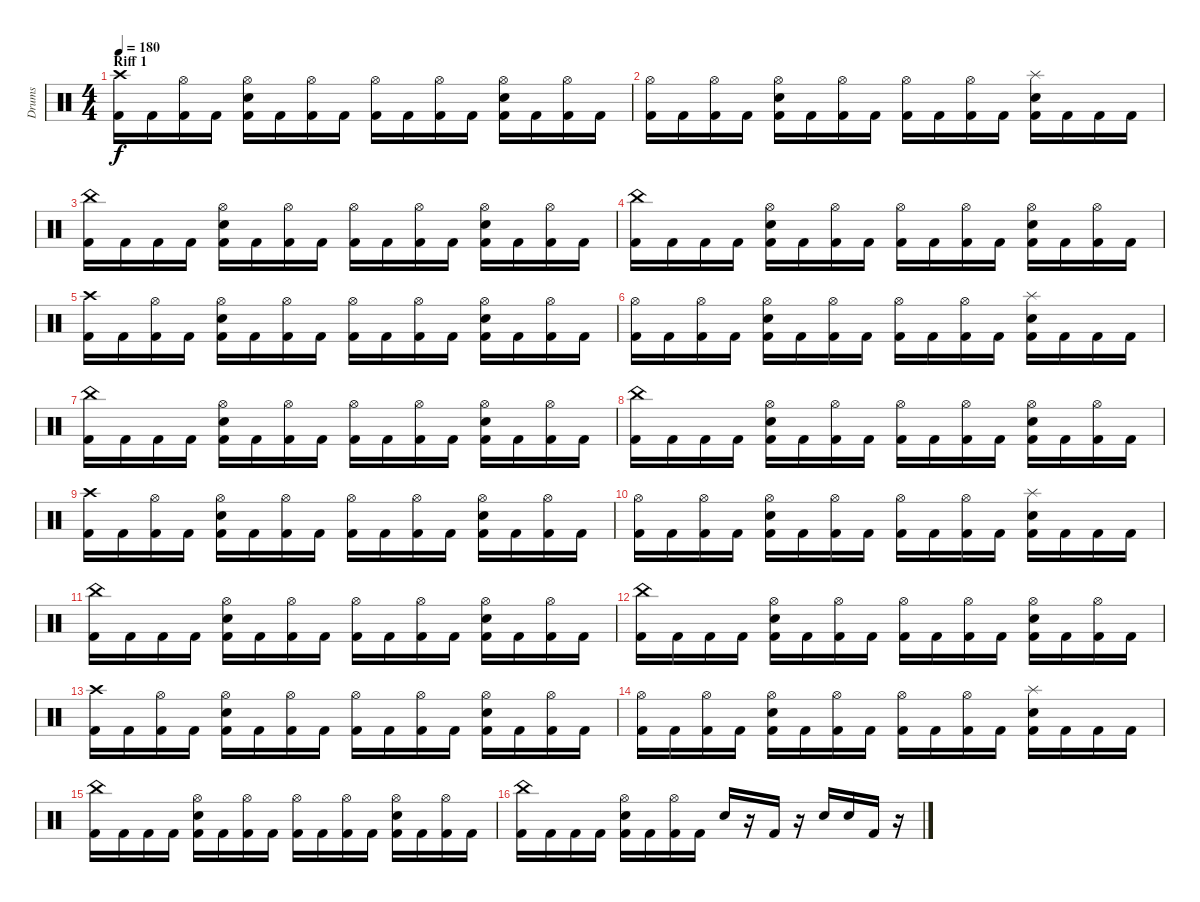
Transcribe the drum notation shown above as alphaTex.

\track ("Drums" "Drums") {instrument percussion}
\staff {score}
\articulation defaults
\ts (4 4)
\section ("" "Riff 1")
\tempo 180
\clef neutral
\ks c
("Kick (hit) 2" "Crash high (hit)").16{dy f} "Kick (hit) 2".16 ("Kick (hit) 2" "Hi-Hat (open)").16 "Kick (hit) 2".16 ("Kick (hit) 2" "Snare (hit) 2" "Hi-Hat (open)").16 "Kick (hit) 2".16 ("Kick (hit) 2" "Hi-Hat (open)").16 "Kick (hit) 2".16 ("Kick (hit) 2" "Hi-Hat (open)").16 "Kick (hit) 2".16 ("Kick (hit) 2" "Hi-Hat (open)").16 "Kick (hit) 2".16 ("Kick (hit) 2" "Snare (hit) 2" "Hi-Hat (open)").16 "Kick (hit) 2".16 ("Kick (hit) 2" "Hi-Hat (open)").16 "Kick (hit) 2".16 |
("Kick (hit) 2" "Hi-Hat (open)").16 "Kick (hit) 2".16 ("Kick (hit) 2" "Hi-Hat (open)").16 "Kick (hit) 2".16 ("Kick (hit) 2" "Snare (hit) 2" "Hi-Hat (open)").16 "Kick (hit) 2".16 ("Kick (hit) 2" "Hi-Hat (open)").16 "Kick (hit) 2".16 ("Kick (hit) 2" "Hi-Hat (open)").16 "Kick (hit) 2".16 ("Kick (hit) 2" "Hi-Hat (open)").16 "Kick (hit) 2".16 ("Kick (hit) 2" "Snare (hit) 2" "Splash (hit)").16 "Kick (hit) 2".16 "Kick (hit) 2".16 "Kick (hit) 2".16 |
("Kick (hit) 2" "China (hit)").16 "Kick (hit) 2".16 "Kick (hit) 2".16 "Kick (hit) 2".16 ("Kick (hit) 2" "Snare (hit) 2" "Hi-Hat (open)").16 "Kick (hit) 2".16 ("Kick (hit) 2" "Hi-Hat (open)").16 "Kick (hit) 2".16 ("Kick (hit) 2" "Hi-Hat (open)").16 "Kick (hit) 2".16 ("Kick (hit) 2" "Hi-Hat (open)").16 "Kick (hit) 2".16 ("Kick (hit) 2" "Snare (hit) 2" "Hi-Hat (open)").16 "Kick (hit) 2".16 ("Kick (hit) 2" "Hi-Hat (open)").16 "Kick (hit) 2".16 |
("Kick (hit) 2" "China (hit)").16 "Kick (hit) 2".16 "Kick (hit) 2".16 "Kick (hit) 2".16 ("Kick (hit) 2" "Snare (hit) 2" "Hi-Hat (open)").16 "Kick (hit) 2".16 ("Kick (hit) 2" "Hi-Hat (open)").16 "Kick (hit) 2".16 ("Kick (hit) 2" "Hi-Hat (open)").16 "Kick (hit) 2".16 ("Kick (hit) 2" "Hi-Hat (open)").16 "Kick (hit) 2".16 ("Kick (hit) 2" "Snare (hit) 2" "Hi-Hat (open)").16 "Kick (hit) 2".16 ("Kick (hit) 2" "Hi-Hat (open)").16 "Kick (hit) 2".16 |
("Kick (hit) 2" "Crash high (hit)").16 "Kick (hit) 2".16 ("Kick (hit) 2" "Hi-Hat (open)").16 "Kick (hit) 2".16 ("Kick (hit) 2" "Snare (hit) 2" "Hi-Hat (open)").16 "Kick (hit) 2".16 ("Kick (hit) 2" "Hi-Hat (open)").16 "Kick (hit) 2".16 ("Kick (hit) 2" "Hi-Hat (open)").16 "Kick (hit) 2".16 ("Kick (hit) 2" "Hi-Hat (open)").16 "Kick (hit) 2".16 ("Kick (hit) 2" "Snare (hit) 2" "Hi-Hat (open)").16 "Kick (hit) 2".16 ("Kick (hit) 2" "Hi-Hat (open)").16 "Kick (hit) 2".16 |
("Kick (hit) 2" "Hi-Hat (open)").16 "Kick (hit) 2".16 ("Kick (hit) 2" "Hi-Hat (open)").16 "Kick (hit) 2".16 ("Kick (hit) 2" "Snare (hit) 2" "Hi-Hat (open)").16 "Kick (hit) 2".16 ("Kick (hit) 2" "Hi-Hat (open)").16 "Kick (hit) 2".16 ("Kick (hit) 2" "Hi-Hat (open)").16 "Kick (hit) 2".16 ("Kick (hit) 2" "Hi-Hat (open)").16 "Kick (hit) 2".16 ("Kick (hit) 2" "Snare (hit) 2" "Splash (hit)").16 "Kick (hit) 2".16 "Kick (hit) 2".16 "Kick (hit) 2".16 |
("Kick (hit) 2" "China (hit)").16 "Kick (hit) 2".16 "Kick (hit) 2".16 "Kick (hit) 2".16 ("Kick (hit) 2" "Snare (hit) 2" "Hi-Hat (open)").16 "Kick (hit) 2".16 ("Kick (hit) 2" "Hi-Hat (open)").16 "Kick (hit) 2".16 ("Kick (hit) 2" "Hi-Hat (open)").16 "Kick (hit) 2".16 ("Kick (hit) 2" "Hi-Hat (open)").16 "Kick (hit) 2".16 ("Kick (hit) 2" "Snare (hit) 2" "Hi-Hat (open)").16 "Kick (hit) 2".16 ("Kick (hit) 2" "Hi-Hat (open)").16 "Kick (hit) 2".16 |
("Kick (hit) 2" "China (hit)").16 "Kick (hit) 2".16 "Kick (hit) 2".16 "Kick (hit) 2".16 ("Kick (hit) 2" "Snare (hit) 2" "Hi-Hat (open)").16 "Kick (hit) 2".16 ("Kick (hit) 2" "Hi-Hat (open)").16 "Kick (hit) 2".16 ("Kick (hit) 2" "Hi-Hat (open)").16 "Kick (hit) 2".16 ("Kick (hit) 2" "Hi-Hat (open)").16 "Kick (hit) 2".16 ("Kick (hit) 2" "Snare (hit) 2" "Hi-Hat (open)").16 "Kick (hit) 2".16 ("Kick (hit) 2" "Hi-Hat (open)").16 "Kick (hit) 2".16 |
("Kick (hit) 2" "Crash high (hit)").16 "Kick (hit) 2".16 ("Kick (hit) 2" "Hi-Hat (open)").16 "Kick (hit) 2".16 ("Kick (hit) 2" "Snare (hit) 2" "Hi-Hat (open)").16 "Kick (hit) 2".16 ("Kick (hit) 2" "Hi-Hat (open)").16 "Kick (hit) 2".16 ("Kick (hit) 2" "Hi-Hat (open)").16 "Kick (hit) 2".16 ("Kick (hit) 2" "Hi-Hat (open)").16 "Kick (hit) 2".16 ("Kick (hit) 2" "Snare (hit) 2" "Hi-Hat (open)").16 "Kick (hit) 2".16 ("Kick (hit) 2" "Hi-Hat (open)").16 "Kick (hit) 2".16 |
("Kick (hit) 2" "Hi-Hat (open)").16 "Kick (hit) 2".16 ("Kick (hit) 2" "Hi-Hat (open)").16 "Kick (hit) 2".16 ("Kick (hit) 2" "Snare (hit) 2" "Hi-Hat (open)").16 "Kick (hit) 2".16 ("Kick (hit) 2" "Hi-Hat (open)").16 "Kick (hit) 2".16 ("Kick (hit) 2" "Hi-Hat (open)").16 "Kick (hit) 2".16 ("Kick (hit) 2" "Hi-Hat (open)").16 "Kick (hit) 2".16 ("Kick (hit) 2" "Snare (hit) 2" "Splash (hit)").16 "Kick (hit) 2".16 "Kick (hit) 2".16 "Kick (hit) 2".16 |
("Kick (hit) 2" "China (hit)").16 "Kick (hit) 2".16 "Kick (hit) 2".16 "Kick (hit) 2".16 ("Kick (hit) 2" "Snare (hit) 2" "Hi-Hat (open)").16 "Kick (hit) 2".16 ("Kick (hit) 2" "Hi-Hat (open)").16 "Kick (hit) 2".16 ("Kick (hit) 2" "Hi-Hat (open)").16 "Kick (hit) 2".16 ("Kick (hit) 2" "Hi-Hat (open)").16 "Kick (hit) 2".16 ("Kick (hit) 2" "Snare (hit) 2" "Hi-Hat (open)").16 "Kick (hit) 2".16 ("Kick (hit) 2" "Hi-Hat (open)").16 "Kick (hit) 2".16 |
("Kick (hit) 2" "China (hit)").16 "Kick (hit) 2".16 "Kick (hit) 2".16 "Kick (hit) 2".16 ("Kick (hit) 2" "Snare (hit) 2" "Hi-Hat (open)").16 "Kick (hit) 2".16 ("Kick (hit) 2" "Hi-Hat (open)").16 "Kick (hit) 2".16 ("Kick (hit) 2" "Hi-Hat (open)").16 "Kick (hit) 2".16 ("Kick (hit) 2" "Hi-Hat (open)").16 "Kick (hit) 2".16 ("Kick (hit) 2" "Snare (hit) 2" "Hi-Hat (open)").16 "Kick (hit) 2".16 ("Kick (hit) 2" "Hi-Hat (open)").16 "Kick (hit) 2".16 |
("Kick (hit) 2" "Crash high (hit)").16 "Kick (hit) 2".16 ("Kick (hit) 2" "Hi-Hat (open)").16 "Kick (hit) 2".16 ("Kick (hit) 2" "Snare (hit) 2" "Hi-Hat (open)").16 "Kick (hit) 2".16 ("Kick (hit) 2" "Hi-Hat (open)").16 "Kick (hit) 2".16 ("Kick (hit) 2" "Hi-Hat (open)").16 "Kick (hit) 2".16 ("Kick (hit) 2" "Hi-Hat (open)").16 "Kick (hit) 2".16 ("Kick (hit) 2" "Snare (hit) 2" "Hi-Hat (open)").16 "Kick (hit) 2".16 ("Kick (hit) 2" "Hi-Hat (open)").16 "Kick (hit) 2".16 |
("Kick (hit) 2" "Hi-Hat (open)").16 "Kick (hit) 2".16 ("Kick (hit) 2" "Hi-Hat (open)").16 "Kick (hit) 2".16 ("Kick (hit) 2" "Snare (hit) 2" "Hi-Hat (open)").16 "Kick (hit) 2".16 ("Kick (hit) 2" "Hi-Hat (open)").16 "Kick (hit) 2".16 ("Kick (hit) 2" "Hi-Hat (open)").16 "Kick (hit) 2".16 ("Kick (hit) 2" "Hi-Hat (open)").16 "Kick (hit) 2".16 ("Kick (hit) 2" "Snare (hit) 2" "Splash (hit)").16 "Kick (hit) 2".16 "Kick (hit) 2".16 "Kick (hit) 2".16 |
("Kick (hit) 2" "China (hit)").16 "Kick (hit) 2".16 "Kick (hit) 2".16 "Kick (hit) 2".16 ("Kick (hit) 2" "Snare (hit) 2" "Hi-Hat (open)").16 "Kick (hit) 2".16 ("Kick (hit) 2" "Hi-Hat (open)").16 "Kick (hit) 2".16 ("Kick (hit) 2" "Hi-Hat (open)").16 "Kick (hit) 2".16 ("Kick (hit) 2" "Hi-Hat (open)").16 "Kick (hit) 2".16 ("Kick (hit) 2" "Snare (hit) 2" "Hi-Hat (open)").16 "Kick (hit) 2".16 ("Kick (hit) 2" "Hi-Hat (open)").16 "Kick (hit) 2".16 |
("Kick (hit) 2" "China (hit)").16 "Kick (hit) 2".16 "Kick (hit) 2".16 "Kick (hit) 2".16 ("Kick (hit) 2" "Snare (hit) 2" "Hi-Hat (open)").16 "Kick (hit) 2".16 ("Kick (hit) 2" "Hi-Hat (open)").16 "Kick (hit) 2".16 "Snare (hit) 2".16 r.16 "Kick (hit) 2".16 r.16 "Snare (hit) 2".16 "Snare (hit) 2".16 "Kick (hit) 2".16 r.16
